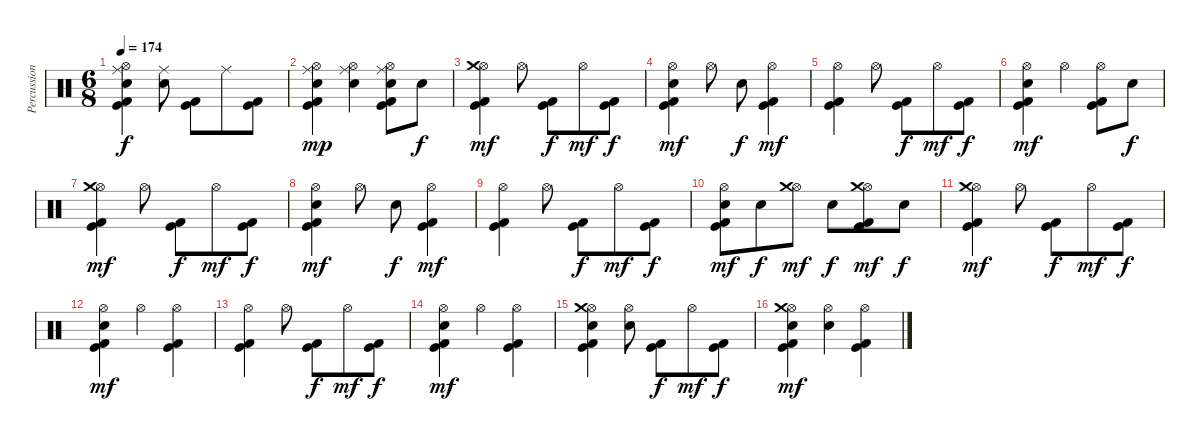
\track ("Percussion" "Percussion") {instrument percussion}
\staff {score}
\articulation defaults
\ts (6 8)
\tempo 174
\clef neutral
\ks c
("Ride (middle)" "Hi-Hat (open)" "Electric Snare (hit)" "Kick (hit) 2" "Kick (hit)").4{dy f} ("Ride (middle)" "Electric Snare (hit)").8 ("Kick (hit) 2" "Kick (hit)").8 "Ride (middle)".8 ("Kick (hit) 2" "Kick (hit)").8 |
("Ride (middle)" "Hi-Hat (open)" "Electric Snare (hit)" "Kick (hit) 2" "Kick (hit)").4{dy mp} ("Ride (middle)" "Hi-Hat (open)" "Electric Snare (hit)").4 ("Ride (middle)" "Hi-Hat (open)" "Electric Snare (hit)" "Kick (hit) 2" "Kick (hit)").8 "Snare (hit) 2".8{dy f} |
("Hi-Hat (open)" "Crash medium (hit)" "Kick (hit) 2" "Kick (hit)").4{dy mf} "Hi-Hat (open)".8 ("Kick (hit) 2" "Kick (hit)").8{dy f} "Hi-Hat (open)".8{dy mf} ("Kick (hit) 2" "Kick (hit)").8{dy f} |
("Hi-Hat (open)" "Electric Snare (hit)" "Kick (hit) 2" "Kick (hit)").4{dy mf} "Hi-Hat (open)".8 "Electric Snare (hit)".8{dy f} ("Hi-Hat (open)" "Kick (hit) 2" "Kick (hit)").4{dy mf} |
("Hi-Hat (open)" "Kick (hit) 2" "Kick (hit)").4 "Hi-Hat (open)".8 ("Kick (hit) 2" "Kick (hit)").8{dy f} "Hi-Hat (open)".8{dy mf} ("Kick (hit) 2" "Kick (hit)").8{dy f} |
("Hi-Hat (open)" "Electric Snare (hit)" "Kick (hit) 2" "Kick (hit)").4{dy mf} "Hi-Hat (open)".4 ("Hi-Hat (open)" "Kick (hit) 2" "Kick (hit)").8 "Electric Snare (hit)".8{dy f} |
("Hi-Hat (open)" "Crash medium (hit)" "Kick (hit) 2" "Kick (hit)").4{dy mf} "Hi-Hat (open)".8 ("Kick (hit) 2" "Kick (hit)").8{dy f} "Hi-Hat (open)".8{dy mf} ("Kick (hit) 2" "Kick (hit)").8{dy f} |
("Hi-Hat (open)" "Electric Snare (hit)" "Kick (hit) 2" "Kick (hit)").4{dy mf} "Hi-Hat (open)".8 "Electric Snare (hit)".8{dy f} ("Hi-Hat (open)" "Kick (hit) 2" "Kick (hit)").4{dy mf} |
("Hi-Hat (open)" "Kick (hit) 2" "Kick (hit)").4 "Hi-Hat (open)".8 ("Kick (hit) 2" "Kick (hit)").8{dy f} "Hi-Hat (open)".8{dy mf} ("Kick (hit) 2" "Kick (hit)").8{dy f} |
("Hi-Hat (open)" "Electric Snare (hit)" "Kick (hit) 2" "Kick (hit)").8{dy mf} "Electric Snare (hit)".8{dy f} ("Hi-Hat (open)" "Crash medium (hit)").8{dy mf} "Electric Snare (hit)".8{dy f} ("Hi-Hat (open)" "Crash medium (hit)" "Kick (hit) 2" "Kick (hit)").8{dy mf} "Electric Snare (hit)".8{dy f} |
("Hi-Hat (open)" "Crash medium (hit)" "Kick (hit) 2" "Kick (hit)").4{dy mf} "Hi-Hat (open)".8 ("Kick (hit) 2" "Kick (hit)").8{dy f} "Hi-Hat (open)".8{dy mf} ("Kick (hit) 2" "Kick (hit)").8{dy f} |
("Hi-Hat (open)" "Electric Snare (hit)" "Kick (hit) 2" "Kick (hit)").4{dy mf} "Hi-Hat (open)".4 ("Hi-Hat (open)" "Kick (hit) 2" "Kick (hit)").4 |
("Hi-Hat (open)" "Kick (hit) 2" "Kick (hit)").4 "Hi-Hat (open)".8 ("Kick (hit) 2" "Kick (hit)").8{dy f} "Hi-Hat (open)".8{dy mf} ("Kick (hit) 2" "Kick (hit)").8{dy f} |
("Hi-Hat (open)" "Electric Snare (hit)" "Kick (hit) 2" "Kick (hit)").4{dy mf} "Hi-Hat (open)".4 ("Hi-Hat (open)" "Kick (hit) 2" "Kick (hit)").4 |
("Hi-Hat (open)" "Crash medium (hit)" "Electric Snare (hit)" "Kick (hit) 2" "Kick (hit)").4 ("Hi-Hat (open)" "Electric Snare (hit)").8 ("Kick (hit) 2" "Kick (hit)").8{dy f} "Hi-Hat (open)".8{dy mf} ("Kick (hit) 2" "Kick (hit)").8{dy f} |
("Hi-Hat (open)" "Crash medium (hit)" "Electric Snare (hit)" "Kick (hit) 2" "Kick (hit)").4{dy mf} ("Hi-Hat (open)" "Electric Snare (hit)").4 ("Hi-Hat (open)" "Kick (hit) 2" "Kick (hit)").4
